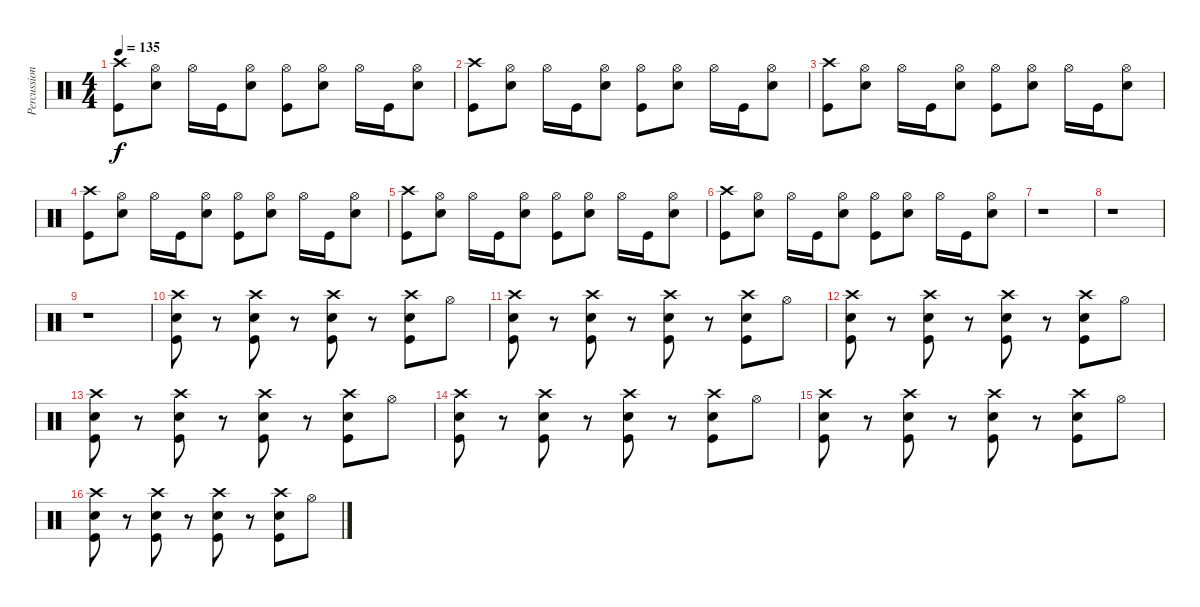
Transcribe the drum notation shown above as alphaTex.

\track ("Percussion" "Percussion") {instrument percussion}
\staff {score}
\articulation defaults
\ts (4 4)
\tempo 135
\clef neutral
\ks c
("Crash high (hit)" "Kick (hit)").8{dy f} ("Hi-Hat (open)" "Snare (hit) 2").8 "Hi-Hat (open)".16 "Kick (hit)".16 ("Hi-Hat (open)" "Snare (hit) 2").8 ("Hi-Hat (open)" "Kick (hit)").8 ("Hi-Hat (open)" "Snare (hit) 2").8 "Hi-Hat (open)".16 "Kick (hit)".16 ("Hi-Hat (open)" "Snare (hit) 2").8 |
("Crash high (hit)" "Kick (hit)").8 ("Hi-Hat (open)" "Snare (hit) 2").8 "Hi-Hat (open)".16 "Kick (hit)".16 ("Hi-Hat (open)" "Snare (hit) 2").8 ("Hi-Hat (open)" "Kick (hit)").8 ("Hi-Hat (open)" "Snare (hit) 2").8 "Hi-Hat (open)".16 "Kick (hit)".16 ("Hi-Hat (open)" "Snare (hit) 2").8 |
("Crash high (hit)" "Kick (hit)").8 ("Hi-Hat (open)" "Snare (hit) 2").8 "Hi-Hat (open)".16 "Kick (hit)".16 ("Hi-Hat (open)" "Snare (hit) 2").8 ("Hi-Hat (open)" "Kick (hit)").8 ("Hi-Hat (open)" "Snare (hit) 2").8 "Hi-Hat (open)".16 "Kick (hit)".16 ("Hi-Hat (open)" "Snare (hit) 2").8 |
("Crash high (hit)" "Kick (hit)").8 ("Hi-Hat (open)" "Snare (hit) 2").8 "Hi-Hat (open)".16 "Kick (hit)".16 ("Hi-Hat (open)" "Snare (hit) 2").8 ("Hi-Hat (open)" "Kick (hit)").8 ("Hi-Hat (open)" "Snare (hit) 2").8 "Hi-Hat (open)".16 "Kick (hit)".16 ("Hi-Hat (open)" "Snare (hit) 2").8 |
("Crash high (hit)" "Kick (hit)").8 ("Hi-Hat (open)" "Snare (hit) 2").8 "Hi-Hat (open)".16 "Kick (hit)".16 ("Hi-Hat (open)" "Snare (hit) 2").8 ("Hi-Hat (open)" "Kick (hit)").8 ("Hi-Hat (open)" "Snare (hit) 2").8 "Hi-Hat (open)".16 "Kick (hit)".16 ("Hi-Hat (open)" "Snare (hit) 2").8 |
("Crash high (hit)" "Kick (hit)").8 ("Hi-Hat (open)" "Snare (hit) 2").8 "Hi-Hat (open)".16 "Kick (hit)".16 ("Hi-Hat (open)" "Snare (hit) 2").8 ("Hi-Hat (open)" "Kick (hit)").8 ("Hi-Hat (open)" "Snare (hit) 2").8 "Hi-Hat (open)".16 "Kick (hit)".16 ("Hi-Hat (open)" "Snare (hit) 2").8 |
r.1 |
r.1 |
r.1 |
("Crash high (hit)" "Snare (hit) 2" "Kick (hit)").8 r.8 ("Crash high (hit)" "Snare (hit) 2" "Kick (hit)").8 r.8 ("Crash high (hit)" "Snare (hit) 2" "Kick (hit)").8 r.8 ("Crash high (hit)" "Snare (hit) 2" "Kick (hit)").8 "Hi-Hat (open)".8 |
("Crash high (hit)" "Snare (hit) 2" "Kick (hit)").8 r.8 ("Crash high (hit)" "Snare (hit) 2" "Kick (hit)").8 r.8 ("Crash high (hit)" "Snare (hit) 2" "Kick (hit)").8 r.8 ("Crash high (hit)" "Snare (hit) 2" "Kick (hit)").8 "Hi-Hat (open)".8 |
("Crash high (hit)" "Snare (hit) 2" "Kick (hit)").8 r.8 ("Crash high (hit)" "Snare (hit) 2" "Kick (hit)").8 r.8 ("Crash high (hit)" "Snare (hit) 2" "Kick (hit)").8 r.8 ("Crash high (hit)" "Snare (hit) 2" "Kick (hit)").8 "Hi-Hat (open)".8 |
("Crash high (hit)" "Snare (hit) 2" "Kick (hit)").8 r.8 ("Crash high (hit)" "Snare (hit) 2" "Kick (hit)").8 r.8 ("Crash high (hit)" "Snare (hit) 2" "Kick (hit)").8 r.8 ("Crash high (hit)" "Snare (hit) 2" "Kick (hit)").8 "Hi-Hat (open)".8 |
("Crash high (hit)" "Snare (hit) 2" "Kick (hit)").8 r.8 ("Crash high (hit)" "Snare (hit) 2" "Kick (hit)").8 r.8 ("Crash high (hit)" "Snare (hit) 2" "Kick (hit)").8 r.8 ("Crash high (hit)" "Snare (hit) 2" "Kick (hit)").8 "Hi-Hat (open)".8 |
("Crash high (hit)" "Snare (hit) 2" "Kick (hit)").8 r.8 ("Crash high (hit)" "Snare (hit) 2" "Kick (hit)").8 r.8 ("Crash high (hit)" "Snare (hit) 2" "Kick (hit)").8 r.8 ("Crash high (hit)" "Snare (hit) 2" "Kick (hit)").8 "Hi-Hat (open)".8 |
("Crash high (hit)" "Snare (hit) 2" "Kick (hit)").8 r.8 ("Crash high (hit)" "Snare (hit) 2" "Kick (hit)").8 r.8 ("Crash high (hit)" "Snare (hit) 2" "Kick (hit)").8 r.8 ("Crash high (hit)" "Snare (hit) 2" "Kick (hit)").8 "Hi-Hat (open)".8
